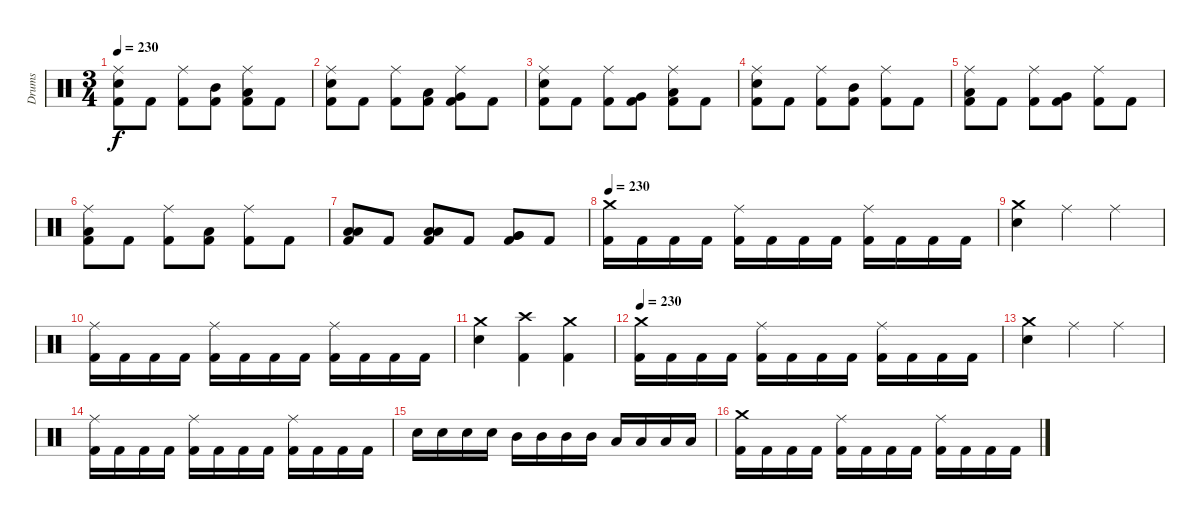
\track ("Drums" "Drums") {instrument percussion}
\staff {score}
\articulation defaults
\ts (3 4)
\tempo 230
\clef neutral
\ks c
("Ride (middle)" "Electric Snare (hit)" "Kick (hit) 2").8{dy f} "Kick (hit) 2".8 ("Ride (middle)" "Kick (hit) 2").8 ("Mid Tom (hit)" "Kick (hit) 2").8 ("Ride (middle)" "Low Tom (hit)" "Kick (hit) 2").8 "Kick (hit) 2".8 |
("Ride (middle)" "Electric Snare (hit)" "Kick (hit) 2").8 "Kick (hit) 2".8 ("Ride (middle)" "Kick (hit) 2").8 ("Low Tom (hit)" "Kick (hit) 2").8 ("Ride (middle)" "Very Low Tom (hit)" "Kick (hit) 2").8 "Kick (hit) 2".8 |
("Ride (middle)" "Electric Snare (hit)" "Kick (hit) 2").8 "Kick (hit) 2".8 ("Ride (middle)" "Kick (hit) 2").8 ("Very Low Tom (hit)" "Kick (hit) 2").8 ("Ride (middle)" "Low Floor Tom (hit)" "Kick (hit) 2").8 "Kick (hit) 2".8 |
("Ride (middle)" "Electric Snare (hit)" "Kick (hit) 2").8 "Kick (hit) 2".8 ("Ride (middle)" "Kick (hit) 2").8 ("Mid Tom (hit)" "Kick (hit) 2").8 ("Ride (middle)" "Kick (hit) 2").8 "Kick (hit) 2".8 |
("Ride (middle)" "Low Tom (hit)" "Kick (hit) 2").8 "Kick (hit) 2".8 ("Ride (middle)" "Kick (hit) 2").8 ("Very Low Tom (hit)" "Kick (hit) 2").8 ("Ride (middle)" "Kick (hit) 2").8 "Kick (hit) 2".8 |
("Ride (middle)" "Low Floor Tom (hit)" "Kick (hit) 2").8 "Kick (hit) 2".8 ("Ride (middle)" "Kick (hit) 2").8 ("Low Floor Tom (hit)" "Kick (hit) 2").8 ("Ride (middle)" "Kick (hit) 2").8 "Kick (hit) 2".8 |
("Low Floor Tom (hit)" "Low Floor Tom (hit)" "Kick (hit) 2").8 "Kick (hit) 2".8 ("Low Tom (hit)" "Low Tom (hit)" "Kick (hit) 2").8 "Kick (hit) 2".8 ("Very Low Tom (hit)" "Very Low Tom (hit)" "Kick (hit) 2").8 "Kick (hit) 2".8 |
\tempo 230
("Crash medium (hit)" "Kick (hit) 2").16 "Kick (hit) 2".16 "Kick (hit) 2".16 "Kick (hit) 2".16 ("Ride (middle)" "Kick (hit) 2").16 "Kick (hit) 2".16 "Kick (hit) 2".16 "Kick (hit) 2".16 ("Ride (middle)" "Kick (hit) 2").16 "Kick (hit) 2".16 "Kick (hit) 2".16 "Kick (hit) 2".16 |
("Crash medium (hit)" "Electric Snare (hit)").4 "Ride (middle)".4 "Ride (middle)".4 |
("Ride (middle)" "Kick (hit) 2").16 "Kick (hit) 2".16 "Kick (hit) 2".16 "Kick (hit) 2".16 ("Ride (middle)" "Kick (hit) 2").16 "Kick (hit) 2".16 "Kick (hit) 2".16 "Kick (hit) 2".16 ("Ride (middle)" "Kick (hit) 2").16 "Kick (hit) 2".16 "Kick (hit) 2".16 "Kick (hit) 2".16 |
("Crash medium (hit)" "Electric Snare (hit)").4 ("Crash high (hit)" "Kick (hit) 2").4 ("Crash medium (hit)" "Kick (hit) 2").4 |
\tempo 230
("Crash medium (hit)" "Kick (hit) 2").16 "Kick (hit) 2".16 "Kick (hit) 2".16 "Kick (hit) 2".16 ("Ride (middle)" "Kick (hit) 2").16 "Kick (hit) 2".16 "Kick (hit) 2".16 "Kick (hit) 2".16 ("Ride (middle)" "Kick (hit) 2").16 "Kick (hit) 2".16 "Kick (hit) 2".16 "Kick (hit) 2".16 |
("Crash medium (hit)" "Electric Snare (hit)").4 "Ride (middle)".4 "Ride (middle)".4 |
("Ride (middle)" "Kick (hit) 2").16 "Kick (hit) 2".16 "Kick (hit) 2".16 "Kick (hit) 2".16 ("Ride (middle)" "Kick (hit) 2").16 "Kick (hit) 2".16 "Kick (hit) 2".16 "Kick (hit) 2".16 ("Ride (middle)" "Kick (hit) 2").16 "Kick (hit) 2".16 "Kick (hit) 2".16 "Kick (hit) 2".16 |
"Electric Snare (hit)".16 "Electric Snare (hit)".16 "Electric Snare (hit)".16 "Electric Snare (hit)".16 "Mid Tom (hit)".16 "Mid Tom (hit)".16 "Mid Tom (hit)".16 "Mid Tom (hit)".16 "Low Tom (hit)".16 "Low Tom (hit)".16 "Low Tom (hit)".16 "Low Tom (hit)".16 |
("Crash medium (hit)" "Kick (hit) 2").16 "Kick (hit) 2".16 "Kick (hit) 2".16 "Kick (hit) 2".16 ("Ride (middle)" "Kick (hit) 2").16 "Kick (hit) 2".16 "Kick (hit) 2".16 "Kick (hit) 2".16 ("Ride (middle)" "Kick (hit) 2").16 "Kick (hit) 2".16 "Kick (hit) 2".16 "Kick (hit) 2".16
